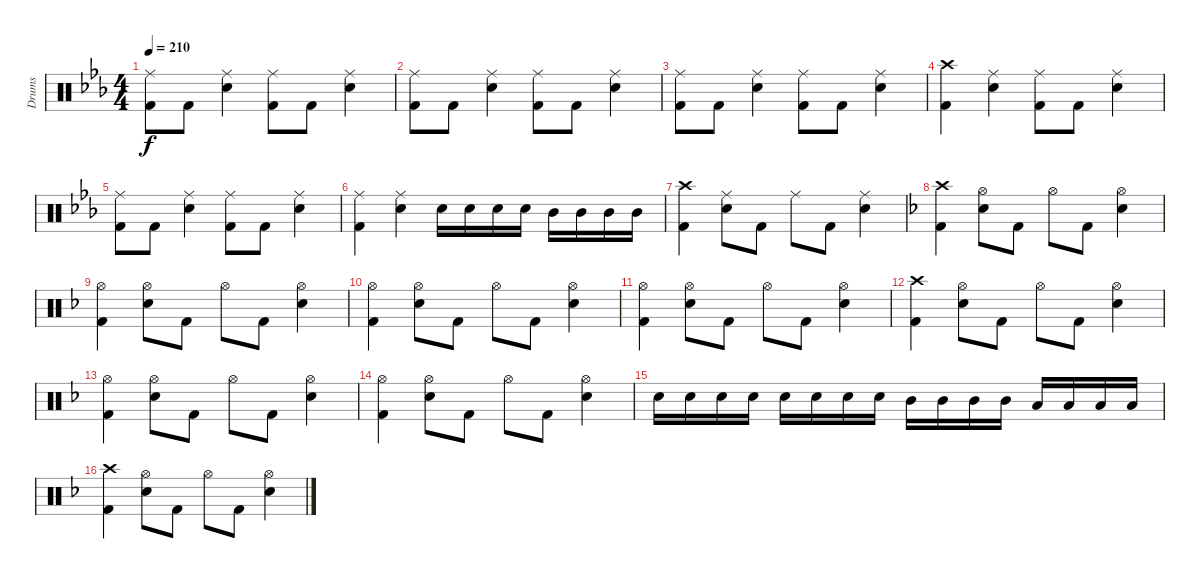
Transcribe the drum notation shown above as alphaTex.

\track ("Drums" "Drums") {instrument percussion}
\staff {score}
\articulation defaults
\ts (4 4)
\tempo 210
\clef neutral
\ks cminor
("Ride (middle)" "Kick (hit) 2").8{dy f} "Kick (hit) 2".8 ("Ride (middle)" "Snare (hit) 2").4 ("Ride (middle)" "Kick (hit) 2").8 "Kick (hit) 2".8 ("Ride (middle)" "Snare (hit) 2").4 |
("Ride (middle)" "Kick (hit) 2").8 "Kick (hit) 2".8 ("Ride (middle)" "Snare (hit) 2").4 ("Ride (middle)" "Kick (hit) 2").8 "Kick (hit) 2".8 ("Ride (middle)" "Snare (hit) 2").4 |
("Ride (middle)" "Kick (hit) 2").8 "Kick (hit) 2".8 ("Ride (middle)" "Snare (hit) 2").4 ("Ride (middle)" "Kick (hit) 2").8 "Kick (hit) 2".8 ("Ride (middle)" "Snare (hit) 2").4 |
("Crash high (hit)" "Kick (hit) 2").4 ("Snare (hit) 2" "Ride (middle)").4 ("Ride (middle)" "Kick (hit) 2").8 "Kick (hit) 2".8 ("Snare (hit) 2" "Ride (middle)").4 |
("Ride (middle)" "Kick (hit) 2").8 "Kick (hit) 2".8 ("Ride (middle)" "Snare (hit) 2").4 ("Ride (middle)" "Kick (hit) 2").8 "Kick (hit) 2".8 ("Ride (middle)" "Snare (hit) 2").4 |
("Ride (middle)" "Kick (hit) 2").4 ("Ride (middle)" "Snare (hit) 2").4 "Snare (hit) 2".16 "Snare (hit) 2".16 "Snare (hit) 2".16 "Snare (hit) 2".16 "Mid Tom (hit)".16 "Mid Tom (hit)".16 "Mid Tom (hit)".16 "Mid Tom (hit)".16 |
("Crash high (hit)" "Kick (hit) 2").4 ("Ride (middle)" "Snare (hit) 2").8 "Kick (hit) 2".8 "Ride (middle)".8 "Kick (hit) 2".8 ("Ride (middle)" "Snare (hit) 2").4 |
\ks dminor
("Crash high (hit)" "Kick (hit) 2").4 ("Hi-Hat (open)" "Snare (hit) 2").8 "Kick (hit) 2".8 "Hi-Hat (open)".8 "Kick (hit) 2".8 ("Hi-Hat (open)" "Snare (hit) 2").4 |
("Hi-Hat (open)" "Kick (hit) 2").4 ("Hi-Hat (open)" "Snare (hit) 2").8 "Kick (hit) 2".8 "Hi-Hat (open)".8 "Kick (hit) 2".8 ("Hi-Hat (open)" "Snare (hit) 2").4 |
("Hi-Hat (open)" "Kick (hit) 2").4 ("Hi-Hat (open)" "Snare (hit) 2").8 "Kick (hit) 2".8 "Hi-Hat (open)".8 "Kick (hit) 2".8 ("Hi-Hat (open)" "Snare (hit) 2").4 |
("Hi-Hat (open)" "Kick (hit) 2").4 ("Hi-Hat (open)" "Snare (hit) 2").8 "Kick (hit) 2".8 "Hi-Hat (open)".8 "Kick (hit) 2".8 ("Hi-Hat (open)" "Snare (hit) 2").4 |
("Crash high (hit)" "Kick (hit) 2").4 ("Hi-Hat (open)" "Snare (hit) 2").8 "Kick (hit) 2".8 "Hi-Hat (open)".8 "Kick (hit) 2".8 ("Hi-Hat (open)" "Snare (hit) 2").4 |
("Hi-Hat (open)" "Kick (hit) 2").4 ("Hi-Hat (open)" "Snare (hit) 2").8 "Kick (hit) 2".8 "Hi-Hat (open)".8 "Kick (hit) 2".8 ("Hi-Hat (open)" "Snare (hit) 2").4 |
("Hi-Hat (open)" "Kick (hit) 2").4 ("Hi-Hat (open)" "Snare (hit) 2").8 "Kick (hit) 2".8 "Hi-Hat (open)".8 "Kick (hit) 2".8 ("Hi-Hat (open)" "Snare (hit) 2").4 |
"Snare (hit) 2".16 "Snare (hit) 2".16 "Snare (hit) 2".16 "Snare (hit) 2".16 "Snare (hit) 2".16 "Snare (hit) 2".16 "Snare (hit) 2".16 "Snare (hit) 2".16 "Mid Tom (hit)".16 "Mid Tom (hit)".16 "Mid Tom (hit)".16 "Mid Tom (hit)".16 "Low Tom (hit)".16 "Low Tom (hit)".16 "Low Tom (hit)".16 "Low Tom (hit)".16 |
("Crash high (hit)" "Kick (hit) 2").4 ("Hi-Hat (open)" "Snare (hit) 2").8 "Kick (hit) 2".8 "Hi-Hat (open)".8 "Kick (hit) 2".8 ("Hi-Hat (open)" "Snare (hit) 2").4
